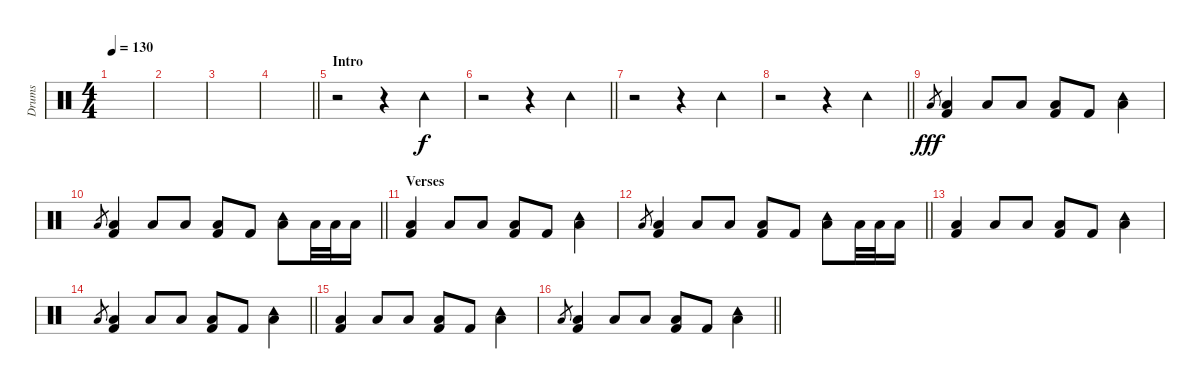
\track ("Drums" "Drums") {instrument percussion}
\staff {score}
\articulation defaults
\ts (4 4)
\tempo 130
\clef neutral
\ks c
|
|
|
\barLineRight lightlight
|
\section ("" "Intro")
r.2 r.4 "Tambourine (hit)".4 |
\barLineRight lightlight
r.2 r.4 "Tambourine (hit)".4 |
r.2 r.4 "Tambourine (hit)".4 |
\barLineRight lightlight
r.2 r.4 "Tambourine (hit)".4 |
"Low Floor Tom (hit)".8{gr dy fff} ("Low Floor Tom (hit)" "Kick (hit) 2").4 "Low Tom (hit)".8 "Low Tom (hit)".8 ("Low Floor Tom (hit)" "Kick (hit) 2").8 "Kick (hit) 2".8 ("Tambourine (hit)" "Low Floor Tom (hit)").4 |
\barLineRight lightlight "Low Floor Tom (hit)".8{gr}
("Low Floor Tom (hit)" "Kick (hit) 2").4 "Low Tom (hit)".8 "Low Tom (hit)".8 ("Low Floor Tom (hit)" "Kick (hit) 2").8 "Kick (hit) 2".8 ("Tambourine (hit)" "Low Floor Tom (hit)").8 "Low Floor Tom (hit)".32 "Low Floor Tom (hit)".32 "Low Floor Tom (hit)".16 |
\section ("" "Verses")
("Low Floor Tom (hit)" "Kick (hit) 2").4 "Low Tom (hit)".8 "Low Tom (hit)".8 ("Low Floor Tom (hit)" "Kick (hit) 2").8 "Kick (hit) 2".8 ("Tambourine (hit)" "Low Floor Tom (hit)").4 |
\barLineRight lightlight "Low Floor Tom (hit)".8{gr}
("Low Floor Tom (hit)" "Kick (hit) 2").4 "Low Tom (hit)".8 "Low Tom (hit)".8 ("Low Floor Tom (hit)" "Kick (hit) 2").8 "Kick (hit) 2".8 ("Tambourine (hit)" "Low Floor Tom (hit)").8 "Low Floor Tom (hit)".32 "Low Floor Tom (hit)".32 "Low Floor Tom (hit)".16 |
("Low Floor Tom (hit)" "Kick (hit) 2").4 "Low Tom (hit)".8 "Low Tom (hit)".8 ("Low Floor Tom (hit)" "Kick (hit) 2").8 "Kick (hit) 2".8 ("Tambourine (hit)" "Low Floor Tom (hit)").4 |
\barLineRight lightlight "Low Floor Tom (hit)".8{gr}
("Low Floor Tom (hit)" "Kick (hit) 2").4 "Low Tom (hit)".8 "Low Tom (hit)".8 ("Low Floor Tom (hit)" "Kick (hit) 2").8 "Kick (hit) 2".8 ("Tambourine (hit)" "Low Floor Tom (hit)").4 |
("Low Floor Tom (hit)" "Kick (hit) 2").4 "Low Tom (hit)".8 "Low Tom (hit)".8 ("Low Floor Tom (hit)" "Kick (hit) 2").8 "Kick (hit) 2".8 ("Tambourine (hit)" "Low Floor Tom (hit)").4 |
\barLineRight lightlight "Low Floor Tom (hit)".8{gr}
("Low Floor Tom (hit)" "Kick (hit) 2").4 "Low Tom (hit)".8 "Low Tom (hit)".8 ("Low Floor Tom (hit)" "Kick (hit) 2").8 "Kick (hit) 2".8 ("Tambourine (hit)" "Low Floor Tom (hit)").4
